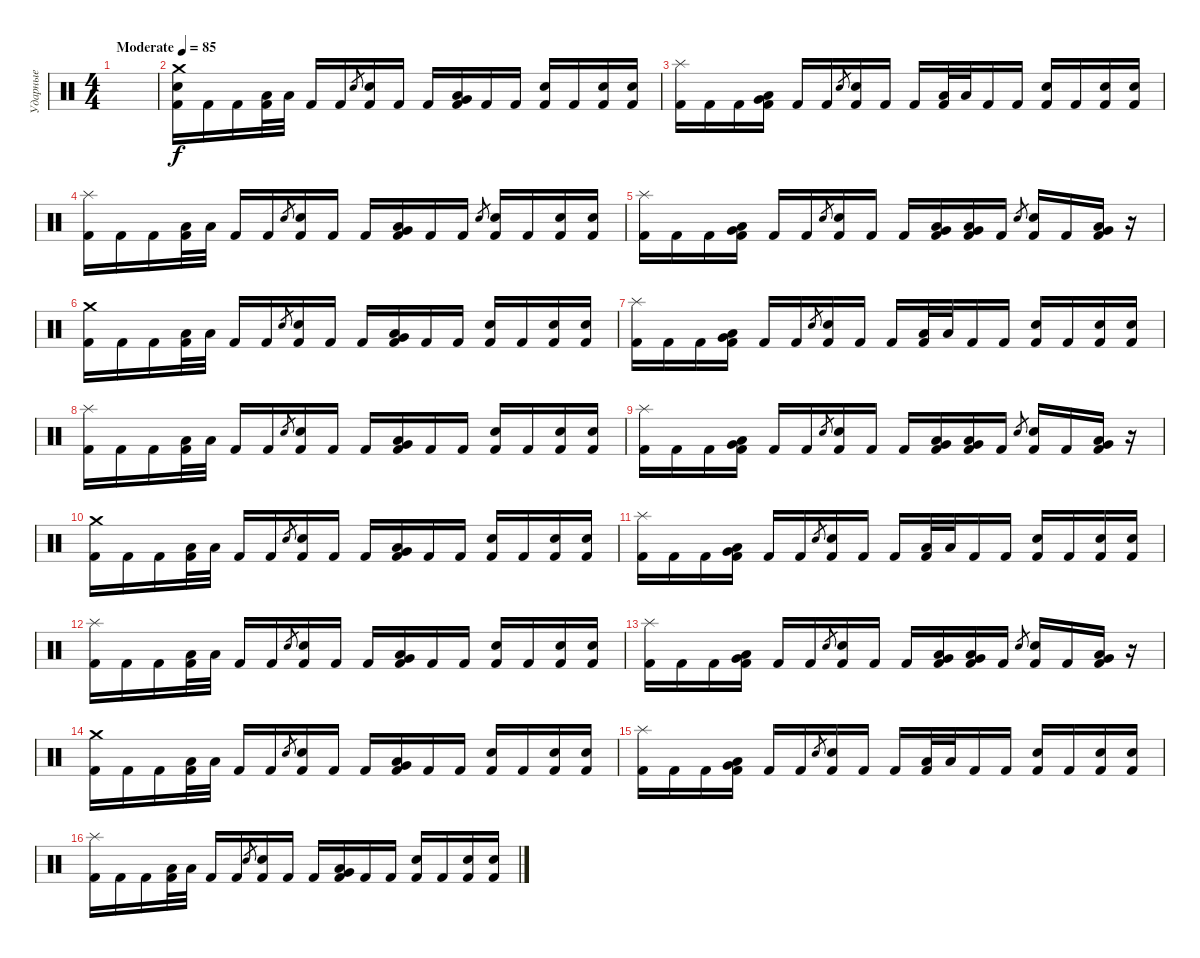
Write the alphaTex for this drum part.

\track ("Ударные" "Ударные") {instrument percussion}
\staff {score}
\articulation defaults
\ts (4 4)
\tempo (85 "Moderate")
\clef neutral
\ks c
|
("Crash medium (hit)" "Electric Snare (hit)" "Kick (hit) 2").16 "Kick (hit) 2".16 "Kick (hit) 2".16 ("Low Tom (hit)" "Kick (hit) 2").32 "Low Tom (hit)".32 "Kick (hit) 2".16 "Kick (hit) 2".16 "Electric Snare (hit)".8{gr} ("Electric Snare (hit)" "Kick (hit) 2").16 "Kick (hit) 2".16 "Kick (hit) 2".16 ("Very Low Tom (hit)" "Low Tom (hit)" "Kick (hit) 2").16 "Kick (hit) 2".16 "Kick (hit) 2".16 ("Electric Snare (hit)" "Kick (hit) 2").16 "Kick (hit) 2".16 ("Electric Snare (hit)" "Kick (hit) 2").16 ("Electric Snare (hit)" "Kick (hit) 2").16 |
("Splash (hit)" "Kick (hit) 2").16 "Kick (hit) 2".16 "Kick (hit) 2".16 ("Very Low Tom (hit)" "Low Tom (hit)" "Kick (hit) 2").16 "Kick (hit) 2".16 "Kick (hit) 2".16 "Electric Snare (hit)".8{gr} ("Electric Snare (hit)" "Kick (hit) 2").16 "Kick (hit) 2".16 "Kick (hit) 2".16 ("Low Tom (hit)" "Kick (hit) 2").32 "Low Tom (hit)".32 "Kick (hit) 2".16 "Kick (hit) 2".16 ("Electric Snare (hit)" "Kick (hit) 2").16 "Kick (hit) 2".16 ("Electric Snare (hit)" "Kick (hit) 2").16 ("Electric Snare (hit)" "Kick (hit) 2").16 |
("Splash (hit)" "Kick (hit) 2").16 "Kick (hit) 2".16 "Kick (hit) 2".16 ("Low Tom (hit)" "Kick (hit) 2").32 "Low Tom (hit)".32 "Kick (hit) 2".16 "Kick (hit) 2".16 "Electric Snare (hit)".8{gr} ("Electric Snare (hit)" "Kick (hit) 2").16 "Kick (hit) 2".16 "Kick (hit) 2".16 ("Very Low Tom (hit)" "Low Tom (hit)" "Kick (hit) 2").16 "Kick (hit) 2".16 "Kick (hit) 2".16 "Electric Snare (hit)".8{gr} ("Electric Snare (hit)" "Kick (hit) 2").16 "Kick (hit) 2".16 ("Electric Snare (hit)" "Kick (hit) 2").16 ("Electric Snare (hit)" "Kick (hit) 2").16 |
("Splash (hit)" "Kick (hit) 2").16 "Kick (hit) 2".16 "Kick (hit) 2".16 ("Very Low Tom (hit)" "Low Tom (hit)" "Kick (hit) 2").16 "Kick (hit) 2".16 "Kick (hit) 2".16 "Electric Snare (hit)".8{gr} ("Electric Snare (hit)" "Kick (hit) 2").16 "Kick (hit) 2".16 "Kick (hit) 2".16 ("Very Low Tom (hit)" "Low Tom (hit)" "Kick (hit) 2").16 ("Very Low Tom (hit)" "Low Tom (hit)" "Kick (hit) 2").16 "Kick (hit) 2".16 "Electric Snare (hit)".8{gr} ("Electric Snare (hit)" "Kick (hit) 2").16 "Kick (hit) 2".16 ("Very Low Tom (hit)" "Low Tom (hit)" "Kick (hit) 2").16 r.16 |
("Crash medium (hit)" "Kick (hit) 2").16 "Kick (hit) 2".16 "Kick (hit) 2".16 ("Low Tom (hit)" "Kick (hit) 2").32 "Low Tom (hit)".32 "Kick (hit) 2".16 "Kick (hit) 2".16 "Electric Snare (hit)".8{gr} ("Electric Snare (hit)" "Kick (hit) 2").16 "Kick (hit) 2".16 "Kick (hit) 2".16 ("Very Low Tom (hit)" "Low Tom (hit)" "Kick (hit) 2").16 "Kick (hit) 2".16 "Kick (hit) 2".16 ("Electric Snare (hit)" "Kick (hit) 2").16 "Kick (hit) 2".16 ("Electric Snare (hit)" "Kick (hit) 2").16 ("Electric Snare (hit)" "Kick (hit) 2").16 |
("Splash (hit)" "Kick (hit) 2").16 "Kick (hit) 2".16 "Kick (hit) 2".16 ("Very Low Tom (hit)" "Low Tom (hit)" "Kick (hit) 2").16 "Kick (hit) 2".16 "Kick (hit) 2".16 "Electric Snare (hit)".8{gr} ("Electric Snare (hit)" "Kick (hit) 2").16 "Kick (hit) 2".16 "Kick (hit) 2".16 ("Low Tom (hit)" "Kick (hit) 2").32 "Low Tom (hit)".32 "Kick (hit) 2".16 "Kick (hit) 2".16 ("Electric Snare (hit)" "Kick (hit) 2").16 "Kick (hit) 2".16 ("Electric Snare (hit)" "Kick (hit) 2").16 ("Electric Snare (hit)" "Kick (hit) 2").16 |
("Splash (hit)" "Kick (hit) 2").16 "Kick (hit) 2".16 "Kick (hit) 2".16 ("Low Tom (hit)" "Kick (hit) 2").32 "Low Tom (hit)".32 "Kick (hit) 2".16 "Kick (hit) 2".16 "Electric Snare (hit)".8{gr} ("Electric Snare (hit)" "Kick (hit) 2").16 "Kick (hit) 2".16 "Kick (hit) 2".16 ("Very Low Tom (hit)" "Low Tom (hit)" "Kick (hit) 2").16 "Kick (hit) 2".16 "Kick (hit) 2".16 ("Electric Snare (hit)" "Kick (hit) 2").16 "Kick (hit) 2".16 ("Electric Snare (hit)" "Kick (hit) 2").16 ("Electric Snare (hit)" "Kick (hit) 2").16 |
("Splash (hit)" "Kick (hit) 2").16 "Kick (hit) 2".16 "Kick (hit) 2".16 ("Very Low Tom (hit)" "Low Tom (hit)" "Kick (hit) 2").16 "Kick (hit) 2".16 "Kick (hit) 2".16 "Electric Snare (hit)".8{gr} ("Electric Snare (hit)" "Kick (hit) 2").16 "Kick (hit) 2".16 "Kick (hit) 2".16 ("Very Low Tom (hit)" "Low Tom (hit)" "Kick (hit) 2").16 ("Very Low Tom (hit)" "Low Tom (hit)" "Kick (hit) 2").16 "Kick (hit) 2".16 "Electric Snare (hit)".8{gr} ("Electric Snare (hit)" "Kick (hit) 2").16 "Kick (hit) 2".16 ("Very Low Tom (hit)" "Low Tom (hit)" "Kick (hit) 2").16 r.16 |
("Crash medium (hit)" "Kick (hit) 2").16 "Kick (hit) 2".16 "Kick (hit) 2".16 ("Low Tom (hit)" "Kick (hit) 2").32 "Low Tom (hit)".32 "Kick (hit) 2".16 "Kick (hit) 2".16 "Electric Snare (hit)".8{gr} ("Electric Snare (hit)" "Kick (hit) 2").16 "Kick (hit) 2".16 "Kick (hit) 2".16 ("Very Low Tom (hit)" "Low Tom (hit)" "Kick (hit) 2").16 "Kick (hit) 2".16 "Kick (hit) 2".16 ("Electric Snare (hit)" "Kick (hit) 2").16 "Kick (hit) 2".16 ("Electric Snare (hit)" "Kick (hit) 2").16 ("Electric Snare (hit)" "Kick (hit) 2").16 |
("Splash (hit)" "Kick (hit) 2").16 "Kick (hit) 2".16 "Kick (hit) 2".16 ("Very Low Tom (hit)" "Low Tom (hit)" "Kick (hit) 2").16 "Kick (hit) 2".16 "Kick (hit) 2".16 "Electric Snare (hit)".8{gr} ("Electric Snare (hit)" "Kick (hit) 2").16 "Kick (hit) 2".16 "Kick (hit) 2".16 ("Low Tom (hit)" "Kick (hit) 2").32 "Low Tom (hit)".32 "Kick (hit) 2".16 "Kick (hit) 2".16 ("Electric Snare (hit)" "Kick (hit) 2").16 "Kick (hit) 2".16 ("Electric Snare (hit)" "Kick (hit) 2").16 ("Electric Snare (hit)" "Kick (hit) 2").16 |
("Splash (hit)" "Kick (hit) 2").16 "Kick (hit) 2".16 "Kick (hit) 2".16 ("Low Tom (hit)" "Kick (hit) 2").32 "Low Tom (hit)".32 "Kick (hit) 2".16 "Kick (hit) 2".16 "Electric Snare (hit)".8{gr} ("Electric Snare (hit)" "Kick (hit) 2").16 "Kick (hit) 2".16 "Kick (hit) 2".16 ("Very Low Tom (hit)" "Low Tom (hit)" "Kick (hit) 2").16 "Kick (hit) 2".16 "Kick (hit) 2".16 ("Electric Snare (hit)" "Kick (hit) 2").16 "Kick (hit) 2".16 ("Electric Snare (hit)" "Kick (hit) 2").16 ("Electric Snare (hit)" "Kick (hit) 2").16 |
("Splash (hit)" "Kick (hit) 2").16 "Kick (hit) 2".16 "Kick (hit) 2".16 ("Very Low Tom (hit)" "Low Tom (hit)" "Kick (hit) 2").16 "Kick (hit) 2".16 "Kick (hit) 2".16 "Electric Snare (hit)".8{gr} ("Electric Snare (hit)" "Kick (hit) 2").16 "Kick (hit) 2".16 "Kick (hit) 2".16 ("Very Low Tom (hit)" "Low Tom (hit)" "Kick (hit) 2").16 ("Very Low Tom (hit)" "Low Tom (hit)" "Kick (hit) 2").16 "Kick (hit) 2".16 "Electric Snare (hit)".8{gr} ("Electric Snare (hit)" "Kick (hit) 2").16 "Kick (hit) 2".16 ("Very Low Tom (hit)" "Low Tom (hit)" "Kick (hit) 2").16 r.16 |
("Crash medium (hit)" "Kick (hit) 2").16 "Kick (hit) 2".16 "Kick (hit) 2".16 ("Low Tom (hit)" "Kick (hit) 2").32 "Low Tom (hit)".32 "Kick (hit) 2".16 "Kick (hit) 2".16 "Electric Snare (hit)".8{gr} ("Electric Snare (hit)" "Kick (hit) 2").16 "Kick (hit) 2".16 "Kick (hit) 2".16 ("Very Low Tom (hit)" "Low Tom (hit)" "Kick (hit) 2").16 "Kick (hit) 2".16 "Kick (hit) 2".16 ("Electric Snare (hit)" "Kick (hit) 2").16 "Kick (hit) 2".16 ("Electric Snare (hit)" "Kick (hit) 2").16 ("Electric Snare (hit)" "Kick (hit) 2").16 |
("Splash (hit)" "Kick (hit) 2").16 "Kick (hit) 2".16 "Kick (hit) 2".16 ("Very Low Tom (hit)" "Low Tom (hit)" "Kick (hit) 2").16 "Kick (hit) 2".16 "Kick (hit) 2".16 "Electric Snare (hit)".8{gr} ("Electric Snare (hit)" "Kick (hit) 2").16 "Kick (hit) 2".16 "Kick (hit) 2".16 ("Low Tom (hit)" "Kick (hit) 2").32 "Low Tom (hit)".32 "Kick (hit) 2".16 "Kick (hit) 2".16 ("Electric Snare (hit)" "Kick (hit) 2").16 "Kick (hit) 2".16 ("Electric Snare (hit)" "Kick (hit) 2").16 ("Electric Snare (hit)" "Kick (hit) 2").16 |
("Splash (hit)" "Kick (hit) 2").16 "Kick (hit) 2".16 "Kick (hit) 2".16 ("Low Tom (hit)" "Kick (hit) 2").32 "Low Tom (hit)".32 "Kick (hit) 2".16 "Kick (hit) 2".16 "Electric Snare (hit)".8{gr} ("Electric Snare (hit)" "Kick (hit) 2").16 "Kick (hit) 2".16 "Kick (hit) 2".16 ("Very Low Tom (hit)" "Low Tom (hit)" "Kick (hit) 2").16 "Kick (hit) 2".16 "Kick (hit) 2".16 ("Electric Snare (hit)" "Kick (hit) 2").16 "Kick (hit) 2".16 ("Electric Snare (hit)" "Kick (hit) 2").16 ("Electric Snare (hit)" "Kick (hit) 2").16
